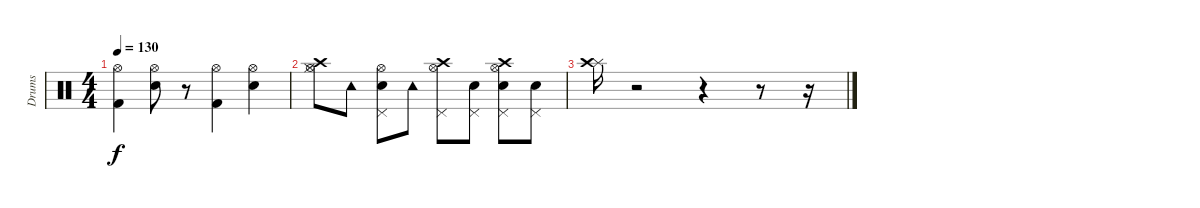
\track ("Drums" "Drums") {instrument percussion}
\staff {score}
\articulation defaults
\ts (4 4)
\tempo 130
\clef neutral
\ks c
("Kick (hit) 2" "Hi-Hat (open)").4{dy f} ("Snare (hit) 2" "Hi-Hat (open)").8 r.8 ("Kick (hit) 2" "Hi-Hat (open)").4 ("Snare (hit) 2" "Hi-Hat (open)").4 |
("Hi-Hat (open)" "Crash high (hit)" "Hi-Hat (closed)").8 "Tambourine (hit)".8 ("Hi-Hat (open)" "Pedal Hi-Hat (hit)" "Snare (hit) 2").8 "Tambourine (hit)".8 ("Hi-Hat (open)" "Crash high (hit)" "Pedal Hi-Hat (hit)").8 ("Pedal Hi-Hat (hit)" "Snare (hit) 2").8 ("Hi-Hat (open)" "Crash high (hit)" "Pedal Hi-Hat (hit)" "Snare (hit) 2").8 ("Pedal Hi-Hat (hit)" "Snare (hit) 2").8 |
("Splash (hit)" "Crash high (hit)").16 r.2 r.4 r.8 r.16
